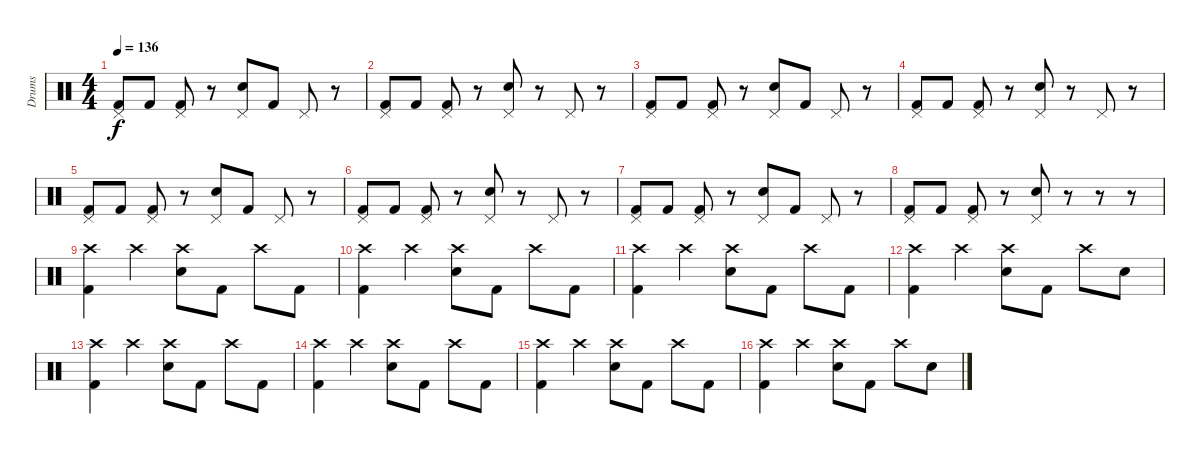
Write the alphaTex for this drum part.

\track ("Drums" "Drums") {instrument percussion}
\staff {score}
\articulation defaults
\ts (4 4)
\tempo 136
\clef neutral
\ks c
("Pedal Hi-Hat (hit)" "Kick (hit) 2").8{dy f} "Kick (hit) 2".8 ("Pedal Hi-Hat (hit)" "Kick (hit) 2").8 r.8 ("Pedal Hi-Hat (hit)" "Electric Snare (hit)").8 "Kick (hit) 2".8 "Pedal Hi-Hat (hit)".8 r.8 |
("Pedal Hi-Hat (hit)" "Kick (hit) 2").8 "Kick (hit) 2".8 ("Pedal Hi-Hat (hit)" "Kick (hit) 2").8 r.8 ("Pedal Hi-Hat (hit)" "Electric Snare (hit)").8 r.8 "Pedal Hi-Hat (hit)".8 r.8 |
("Pedal Hi-Hat (hit)" "Kick (hit) 2").8 "Kick (hit) 2".8 ("Pedal Hi-Hat (hit)" "Kick (hit) 2").8 r.8 ("Pedal Hi-Hat (hit)" "Electric Snare (hit)").8 "Kick (hit) 2".8 "Pedal Hi-Hat (hit)".8 r.8 |
("Pedal Hi-Hat (hit)" "Kick (hit) 2").8 "Kick (hit) 2".8 ("Pedal Hi-Hat (hit)" "Kick (hit) 2").8 r.8 ("Pedal Hi-Hat (hit)" "Electric Snare (hit)").8 r.8 "Pedal Hi-Hat (hit)".8 r.8 |
("Pedal Hi-Hat (hit)" "Kick (hit) 2").8 "Kick (hit) 2".8 ("Pedal Hi-Hat (hit)" "Kick (hit) 2").8 r.8 ("Pedal Hi-Hat (hit)" "Electric Snare (hit)").8 "Kick (hit) 2".8 "Pedal Hi-Hat (hit)".8 r.8 |
("Pedal Hi-Hat (hit)" "Kick (hit) 2").8 "Kick (hit) 2".8 ("Pedal Hi-Hat (hit)" "Kick (hit) 2").8 r.8 ("Pedal Hi-Hat (hit)" "Electric Snare (hit)").8 r.8 "Pedal Hi-Hat (hit)".8 r.8 |
("Pedal Hi-Hat (hit)" "Kick (hit) 2").8 "Kick (hit) 2".8 ("Pedal Hi-Hat (hit)" "Kick (hit) 2").8 r.8 ("Pedal Hi-Hat (hit)" "Electric Snare (hit)").8 "Kick (hit) 2".8 "Pedal Hi-Hat (hit)".8 r.8 |
("Pedal Hi-Hat (hit)" "Kick (hit) 2").8 "Kick (hit) 2".8 ("Pedal Hi-Hat (hit)" "Kick (hit) 2").8 r.8 ("Pedal Hi-Hat (hit)" "Electric Snare (hit)").8 r.8 r.8 r.8 |
("Crash high (hit)" "Kick (hit) 2").4 "Crash high (hit)".4 ("Crash high (hit)" "Electric Snare (hit)").8 "Kick (hit) 2".8 "Crash high (hit)".8 "Kick (hit) 2".8 |
("Crash high (hit)" "Kick (hit) 2").4 "Crash high (hit)".4 ("Crash high (hit)" "Electric Snare (hit)").8 "Kick (hit) 2".8 "Crash high (hit)".8 "Kick (hit) 2".8 |
("Crash high (hit)" "Kick (hit) 2").4 "Crash high (hit)".4 ("Crash high (hit)" "Electric Snare (hit)").8 "Kick (hit) 2".8 "Crash high (hit)".8 "Kick (hit) 2".8 |
("Crash high (hit)" "Kick (hit) 2").4 "Crash high (hit)".4 ("Crash high (hit)" "Electric Snare (hit)").8 "Kick (hit) 2".8 "Crash high (hit)".8 "Electric Snare (hit)".8 |
("Crash high (hit)" "Kick (hit) 2").4 "Crash high (hit)".4 ("Crash high (hit)" "Electric Snare (hit)").8 "Kick (hit) 2".8 "Crash high (hit)".8 "Kick (hit) 2".8 |
("Crash high (hit)" "Kick (hit) 2").4 "Crash high (hit)".4 ("Crash high (hit)" "Electric Snare (hit)").8 "Kick (hit) 2".8 "Crash high (hit)".8 "Kick (hit) 2".8 |
("Crash high (hit)" "Kick (hit) 2").4 "Crash high (hit)".4 ("Crash high (hit)" "Electric Snare (hit)").8 "Kick (hit) 2".8 "Crash high (hit)".8 "Kick (hit) 2".8 |
("Crash high (hit)" "Kick (hit) 2").4 "Crash high (hit)".4 ("Crash high (hit)" "Electric Snare (hit)").8 "Kick (hit) 2".8 "Crash high (hit)".8 "Electric Snare (hit)".8
